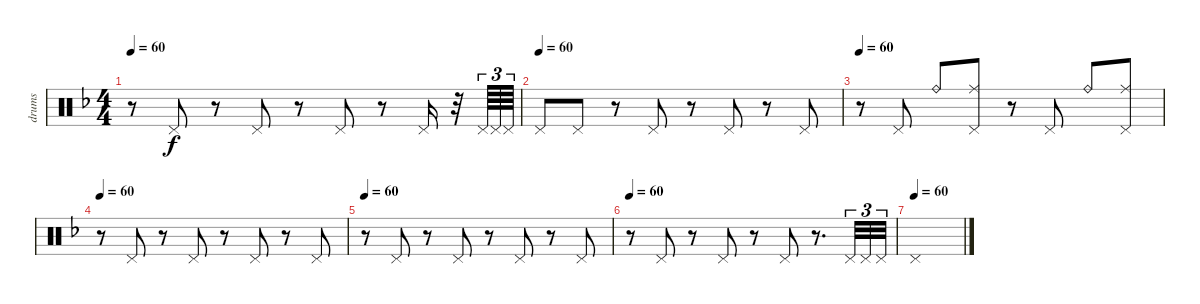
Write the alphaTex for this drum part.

\track ("drums" "drums") {instrument percussion}
\staff {score}
\articulation defaults
\ts (4 4)
\tempo 60
\clef neutral
\ks dminor
r.8{dy f} "Pedal Hi-Hat (hit)".8 r.8 "Pedal Hi-Hat (hit)".8 r.8 "Pedal Hi-Hat (hit)".8 r.8 "Pedal Hi-Hat (hit)".16 r.32 "Pedal Hi-Hat (hit)".64{tu (3 2)} "Pedal Hi-Hat (hit)".64{tu (3 2)} "Pedal Hi-Hat (hit)".64{tu (3 2)} |
\tempo (60)
"Pedal Hi-Hat (hit)".8 "Pedal Hi-Hat (hit)".8 r.8 "Pedal Hi-Hat (hit)".8 r.8 "Pedal Hi-Hat (hit)".8 r.8 "Pedal Hi-Hat (hit)".8 |
\tempo 60
r.8 "Pedal Hi-Hat (hit)".8 "Ride (bell)".8 ("Pedal Hi-Hat (hit)" "Ride (middle)").8 r.8 "Pedal Hi-Hat (hit)".8 "Ride (bell)".8 ("Pedal Hi-Hat (hit)" "Ride (middle)").8 |
\tempo 60
r.8 "Pedal Hi-Hat (hit)".8 r.8 "Pedal Hi-Hat (hit)".8 r.8 "Pedal Hi-Hat (hit)".8 r.8 "Pedal Hi-Hat (hit)".8 |
\tempo 60
r.8 "Pedal Hi-Hat (hit)".8 r.8 "Pedal Hi-Hat (hit)".8 r.8 "Pedal Hi-Hat (hit)".8 r.8 "Pedal Hi-Hat (hit)".8 |
\tempo 60
r.8 "Pedal Hi-Hat (hit)".8 r.8 "Pedal Hi-Hat (hit)".8 r.8 "Pedal Hi-Hat (hit)".8 r.8{d} "Pedal Hi-Hat (hit)".32{tu (3 2)} "Pedal Hi-Hat (hit)".32{tu (3 2)} "Pedal Hi-Hat (hit)".32{tu (3 2)} |
\tempo (60)
"Pedal Hi-Hat (hit)".1
